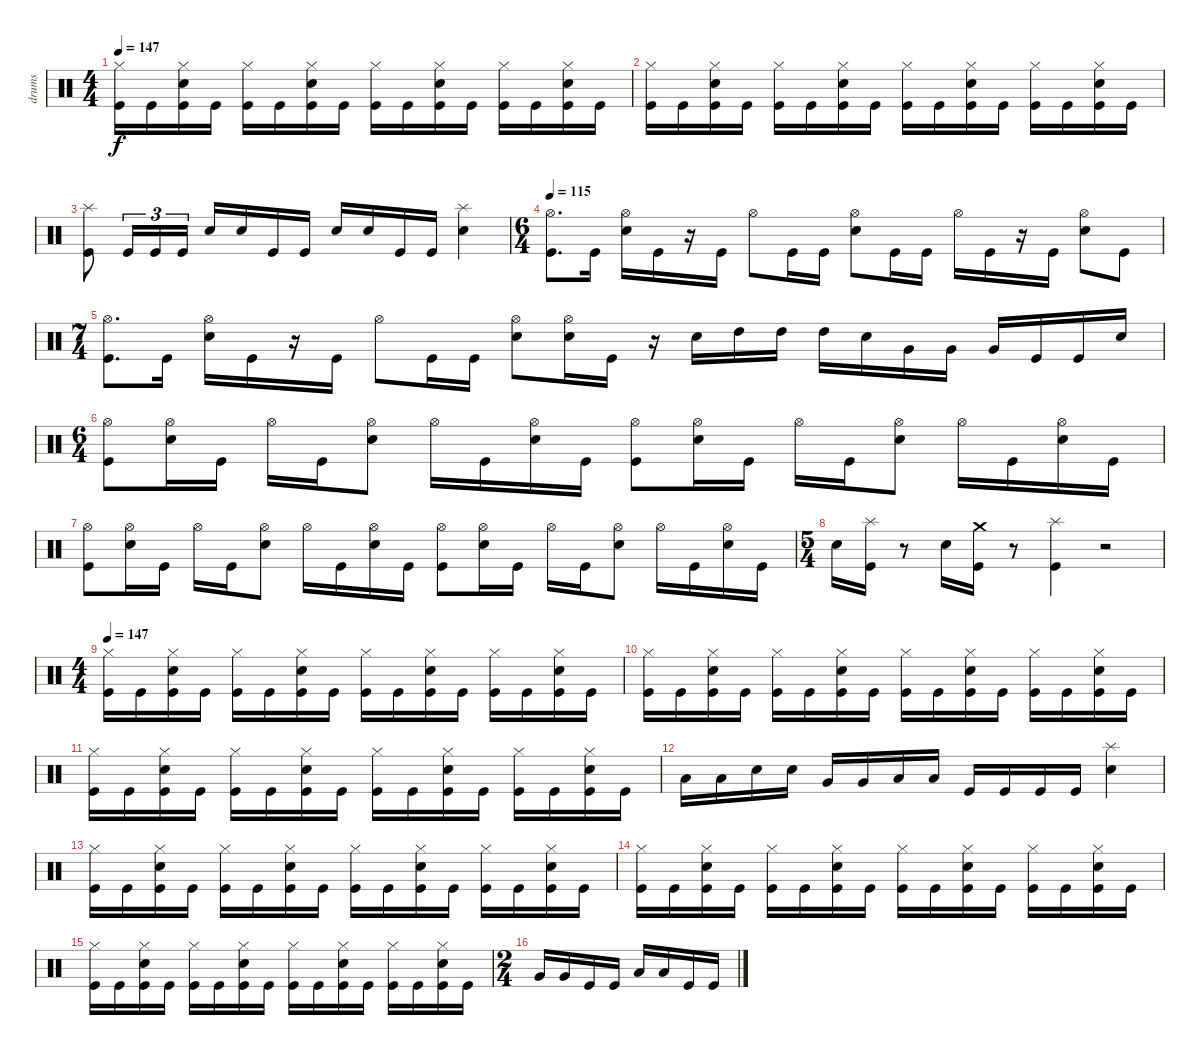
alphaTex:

\track ("drums" "drums") {instrument percussion}
\staff {score}
\articulation defaults
\ts (4 4)
\tempo 147
\clef neutral
\ks c
("Kick (hit)" "Hi-Hat (closed)").16{dy f} "Kick (hit)".16 ("Hi-Hat (closed)" "Kick (hit)" "Snare (hit) 2").16 "Kick (hit)".16 ("Kick (hit)" "Hi-Hat (closed)").16 "Kick (hit)".16 ("Kick (hit)" "Hi-Hat (closed)" "Snare (hit) 2").16 "Kick (hit)".16 ("Kick (hit)" "Hi-Hat (closed)").16 "Kick (hit)".16 ("Hi-Hat (closed)" "Snare (hit) 2" "Kick (hit)").16 "Kick (hit)".16 ("Kick (hit)" "Hi-Hat (closed)").16 "Kick (hit)".16 ("Kick (hit)" "Hi-Hat (closed)" "Snare (hit) 2").16 "Kick (hit)".16 |
("Hi-Hat (closed)" "Kick (hit)").16 "Kick (hit)".16 ("Hi-Hat (closed)" "Kick (hit)" "Snare (hit) 2").16 "Kick (hit)".16 ("Hi-Hat (closed)" "Kick (hit)").16 "Kick (hit)".16 ("Kick (hit)" "Hi-Hat (closed)" "Snare (hit) 2").16 "Kick (hit)".16 ("Kick (hit)" "Hi-Hat (closed)").16 "Kick (hit)".16 ("Snare (hit) 2" "Hi-Hat (closed)" "Kick (hit)").16 "Kick (hit)".16 ("Kick (hit)" "Hi-Hat (closed)").16 "Kick (hit)".16 ("Hi-Hat (closed)" "Kick (hit)" "Snare (hit) 2").16 "Kick (hit)".16 |
("Kick (hit)" "Splash (hit)").8 "Kick (hit)".16{tu (3 2)} "Kick (hit)".16{tu (3 2)} "Kick (hit)".16{tu (3 2)} "Snare (hit) 2".16 "Snare (hit) 2".16 "Kick (hit)".16 "Kick (hit)".16 "Snare (hit) 2".16 "Snare (hit) 2".16 "Kick (hit)".16 "Kick (hit)".16 ("Snare (hit) 2" "Splash (hit)").4 |
\ts (6 4)
\tempo 115
("Hi-Hat (open)" "Kick (hit)").8{d} "Kick (hit)".16 ("Hi-Hat (open)" "Snare (hit) 2").16 "Kick (hit)".16 r.16 "Kick (hit)".16 "Hi-Hat (open)".8 "Kick (hit)".16 "Kick (hit)".16 ("Hi-Hat (open)" "Snare (hit) 2").8 "Kick (hit)".16 "Kick (hit)".16 "Hi-Hat (open)".16 "Kick (hit)".16 r.16 "Kick (hit)".16 ("Hi-Hat (open)" "Snare (hit) 2").8 "Kick (hit)".8 |
\ts (7 4)
("Hi-Hat (open)" "Kick (hit)").8{d} "Kick (hit)".16 ("Hi-Hat (open)" "Snare (hit) 2").16 "Kick (hit)".16 r.16 "Kick (hit)".16 "Hi-Hat (open)".8 "Kick (hit)".16 "Kick (hit)".16 ("Snare (hit) 2" "Hi-Hat (open)").8 ("Hi-Hat (open)" "Snare (hit) 2").16 "Kick (hit)".16 r.16 "Snare (hit) 2".16 "High Tom (hit)".16 "High Tom (hit)".16 "High Tom (hit)".16 "Snare (hit) 2".16 "Very Low Tom (hit)".16 "Very Low Tom (hit)".16 "Very Low Tom (hit)".16 "Kick (hit)".16 "Kick (hit)".16 "Snare (hit) 2".16 |
\ts (6 4)
("Hi-Hat (open)" "Kick (hit)").8 ("Hi-Hat (open)" "Snare (hit) 2").16 "Kick (hit)".16 "Hi-Hat (open)".16 "Kick (hit)".16 ("Hi-Hat (open)" "Snare (hit) 2").8 "Hi-Hat (open)".16 "Kick (hit)".16 ("Snare (hit) 2" "Hi-Hat (open)").16 "Kick (hit)".16 ("Hi-Hat (open)" "Kick (hit)").8 ("Snare (hit) 2" "Hi-Hat (open)").16 "Kick (hit)".16 "Hi-Hat (open)".16 "Kick (hit)".16 ("Hi-Hat (open)" "Snare (hit) 2").8 "Hi-Hat (open)".16 "Kick (hit)".16 ("Hi-Hat (open)" "Snare (hit) 2").16 "Kick (hit)".16 |
("Kick (hit)" "Hi-Hat (open)").8 ("Hi-Hat (open)" "Snare (hit) 2").16 "Kick (hit)".16 "Hi-Hat (open)".16 "Kick (hit)".16 ("Hi-Hat (open)" "Snare (hit) 2").8 "Hi-Hat (open)".16 "Kick (hit)".16 ("Snare (hit) 2" "Hi-Hat (open)").16 "Kick (hit)".16 ("Kick (hit)" "Hi-Hat (open)").8 ("Hi-Hat (open)" "Snare (hit) 2").16 "Kick (hit)".16 "Hi-Hat (open)".16 "Kick (hit)".16 ("Snare (hit) 2" "Hi-Hat (open)").8 "Hi-Hat (open)".16 "Kick (hit)".16 ("Hi-Hat (open)" "Snare (hit) 2").16 "Kick (hit)".16 |
\ts (5 4)
"Snare (hit) 2".16 ("Kick (hit)" "Splash (hit)").16 r.8 "Snare (hit) 2".16 ("Kick (hit)" "Crash medium (hit)").16 r.8 ("Splash (hit)" "Kick (hit)").4 r.2 |
\ts (4 4)
\tempo 147
("Kick (hit)" "Hi-Hat (closed)").16 "Kick (hit)".16 ("Snare (hit) 2" "Hi-Hat (closed)" "Kick (hit)").16 "Kick (hit)".16 ("Hi-Hat (closed)" "Kick (hit)").16 "Kick (hit)".16 ("Hi-Hat (closed)" "Snare (hit) 2" "Kick (hit)").16 "Kick (hit)".16 ("Hi-Hat (closed)" "Kick (hit)").16 "Kick (hit)".16 ("Snare (hit) 2" "Kick (hit)" "Hi-Hat (closed)").16 "Kick (hit)".16 ("Kick (hit)" "Hi-Hat (closed)").16 "Kick (hit)".16 ("Snare (hit) 2" "Hi-Hat (closed)" "Kick (hit)").16 "Kick (hit)".16 |
("Hi-Hat (closed)" "Kick (hit)").16 "Kick (hit)".16 ("Hi-Hat (closed)" "Kick (hit)" "Snare (hit) 2").16 "Kick (hit)".16 ("Kick (hit)" "Hi-Hat (closed)").16 "Kick (hit)".16 ("Snare (hit) 2" "Hi-Hat (closed)" "Kick (hit)").16 "Kick (hit)".16 ("Hi-Hat (closed)" "Kick (hit)").16 "Kick (hit)".16 ("Kick (hit)" "Snare (hit) 2" "Hi-Hat (closed)").16 "Kick (hit)".16 ("Hi-Hat (closed)" "Kick (hit)").16 "Kick (hit)".16 ("Hi-Hat (closed)" "Kick (hit)" "Snare (hit) 2").16 "Kick (hit)".16 |
("Hi-Hat (closed)" "Kick (hit)").16 "Kick (hit)".16 ("Snare (hit) 2" "Kick (hit)" "Hi-Hat (closed)").16 "Kick (hit)".16 ("Hi-Hat (closed)" "Kick (hit)").16 "Kick (hit)".16 ("Kick (hit)" "Snare (hit) 2" "Hi-Hat (closed)").16 "Kick (hit)".16 ("Kick (hit)" "Hi-Hat (closed)").16 "Kick (hit)".16 ("Kick (hit)" "Hi-Hat (closed)" "Snare (hit) 2").16 "Kick (hit)".16 ("Kick (hit)" "Hi-Hat (closed)").16 "Kick (hit)".16 ("Kick (hit)" "Hi-Hat (closed)" "Snare (hit) 2").16 "Kick (hit)".16 |
"Low Floor Tom (hit)".16 "Low Floor Tom (hit)".16 "Snare (hit) 2".16 "Snare (hit) 2".16 "Very Low Tom (hit)".16 "Very Low Tom (hit)".16 "Low Floor Tom (hit)".16 "Low Floor Tom (hit)".16 "Kick (hit)".16 "Kick (hit)".16 "Kick (hit)".16 "Kick (hit)".16 ("Splash (hit)" "Snare (hit) 2").4 |
("Hi-Hat (closed)" "Kick (hit)").16 "Kick (hit)".16 ("Kick (hit)" "Snare (hit) 2" "Hi-Hat (closed)").16 "Kick (hit)".16 ("Hi-Hat (closed)" "Kick (hit)").16 "Kick (hit)".16 ("Hi-Hat (closed)" "Snare (hit) 2" "Kick (hit)").16 "Kick (hit)".16 ("Hi-Hat (closed)" "Kick (hit)").16 "Kick (hit)".16 ("Kick (hit)" "Snare (hit) 2" "Hi-Hat (closed)").16 "Kick (hit)".16 ("Hi-Hat (closed)" "Kick (hit)").16 "Kick (hit)".16 ("Hi-Hat (closed)" "Snare (hit) 2" "Kick (hit)").16 "Kick (hit)".16 |
("Kick (hit)" "Hi-Hat (closed)").16 "Kick (hit)".16 ("Snare (hit) 2" "Kick (hit)" "Hi-Hat (closed)").16 "Kick (hit)".16 ("Hi-Hat (closed)" "Kick (hit)").16 "Kick (hit)".16 ("Kick (hit)" "Snare (hit) 2" "Hi-Hat (closed)").16 "Kick (hit)".16 ("Hi-Hat (closed)" "Kick (hit)").16 "Kick (hit)".16 ("Hi-Hat (closed)" "Snare (hit) 2" "Kick (hit)").16 "Kick (hit)".16 ("Kick (hit)" "Hi-Hat (closed)").16 "Kick (hit)".16 ("Snare (hit) 2" "Hi-Hat (closed)" "Kick (hit)").16 "Kick (hit)".16 |
("Kick (hit)" "Hi-Hat (closed)").16 "Kick (hit)".16 ("Snare (hit) 2" "Kick (hit)" "Hi-Hat (closed)").16 "Kick (hit)".16 ("Hi-Hat (closed)" "Kick (hit)").16 "Kick (hit)".16 ("Hi-Hat (closed)" "Snare (hit) 2" "Kick (hit)").16 "Kick (hit)".16 ("Hi-Hat (closed)" "Kick (hit)").16 "Kick (hit)".16 ("Hi-Hat (closed)" "Snare (hit) 2" "Kick (hit)").16 "Kick (hit)".16 ("Kick (hit)" "Hi-Hat (closed)").16 "Kick (hit)".16 ("Hi-Hat (closed)" "Snare (hit) 2" "Kick (hit)").16 "Kick (hit)".16 |
\ts (2 4)
"Very Low Tom (hit)".16 "Very Low Tom (hit)".16 "Kick (hit)".16 "Kick (hit)".16 "Low Floor Tom (hit)".16 "Low Floor Tom (hit)".16 "Kick (hit)".16 "Kick (hit)".16
